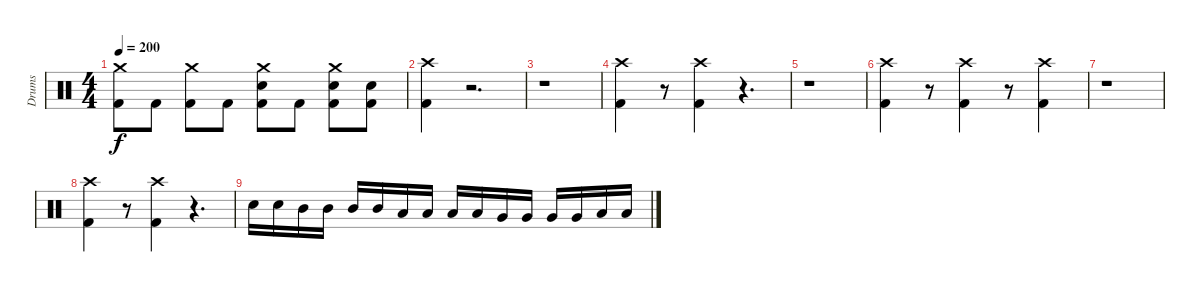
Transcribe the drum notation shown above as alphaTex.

\track ("Drums" "Drums") {instrument percussion}
\staff {score}
\articulation defaults
\ts (4 4)
\tempo 200
\clef neutral
\ks c
("Crash medium (hit)" "Kick (hit) 2").8{dy f} "Kick (hit) 2".8 ("Crash medium (hit)" "Kick (hit) 2").8 "Kick (hit) 2".8 ("Crash medium (hit)" "Electric Snare (hit)" "Kick (hit) 2").8 "Kick (hit) 2".8 ("Crash medium (hit)" "Electric Snare (hit)" "Kick (hit) 2").8 ("Electric Snare (hit)" "Kick (hit) 2").8 |
("Crash high (hit)" "Kick (hit) 2").4 r.2{d} |
r.1 |
("Crash high (hit)" "Kick (hit) 2").4 r.8 ("Crash high (hit)" "Kick (hit) 2").4 r.4{d} |
r.1 |
("Crash high (hit)" "Kick (hit) 2").4 r.8 ("Crash high (hit)" "Kick (hit) 2").4 r.8 ("Crash high (hit)" "Kick (hit) 2").4 |
r.1 |
("Crash high (hit)" "Kick (hit) 2").4 r.8 ("Crash high (hit)" "Kick (hit) 2").4 r.4{d} |
"Electric Snare (hit)".16 "Electric Snare (hit)".16 "Mid Tom (hit)".16 "Mid Tom (hit)".16 "Mid Tom (hit)".16 "Mid Tom (hit)".16 "Low Tom (hit)".16 "Low Tom (hit)".16 "Low Tom (hit)".16 "Low Tom (hit)".16 "Very Low Tom (hit)".16 "Very Low Tom (hit)".16 "Very Low Tom (hit)".16 "Very Low Tom (hit)".16 "Low Floor Tom (hit)".16 "Low Floor Tom (hit)".16
